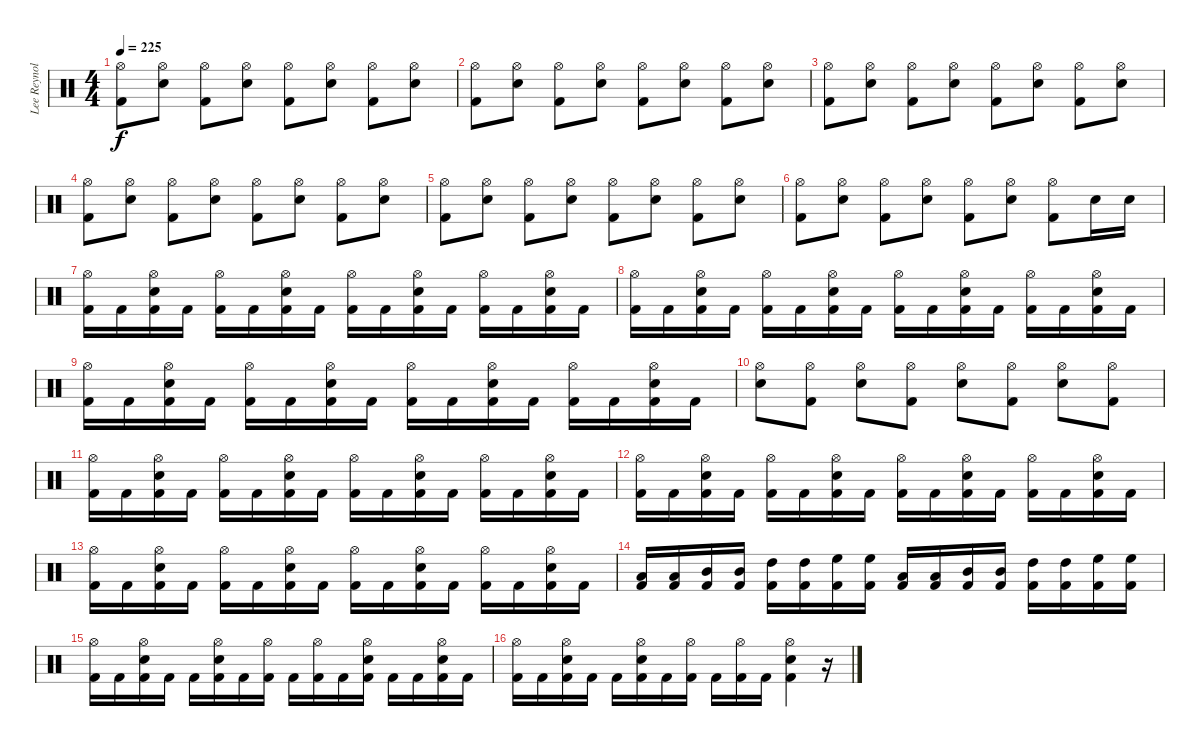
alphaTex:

\track ("Lee Reynolds" "Lee Reynol") {instrument percussion}
\staff {score}
\articulation defaults
\ts (4 4)
\tempo 225
\clef neutral
\ks c
("Hi-Hat (open)" "Kick (hit) 2").8{dy f} ("Hi-Hat (open)" "Snare (hit) 2").8 ("Hi-Hat (open)" "Kick (hit) 2").8 ("Hi-Hat (open)" "Snare (hit) 2").8 ("Hi-Hat (open)" "Kick (hit) 2").8 ("Hi-Hat (open)" "Snare (hit) 2").8 ("Hi-Hat (open)" "Kick (hit) 2").8 ("Hi-Hat (open)" "Snare (hit) 2").8 |
("Hi-Hat (open)" "Kick (hit) 2").8 ("Hi-Hat (open)" "Snare (hit) 2").8 ("Hi-Hat (open)" "Kick (hit) 2").8 ("Hi-Hat (open)" "Snare (hit) 2").8 ("Hi-Hat (open)" "Kick (hit) 2").8 ("Hi-Hat (open)" "Snare (hit) 2").8 ("Hi-Hat (open)" "Kick (hit) 2").8 ("Hi-Hat (open)" "Snare (hit) 2").8 |
("Hi-Hat (open)" "Kick (hit) 2").8 ("Hi-Hat (open)" "Snare (hit) 2").8 ("Hi-Hat (open)" "Kick (hit) 2").8 ("Hi-Hat (open)" "Snare (hit) 2").8 ("Hi-Hat (open)" "Kick (hit) 2").8 ("Hi-Hat (open)" "Snare (hit) 2").8 ("Hi-Hat (open)" "Kick (hit) 2").8 ("Hi-Hat (open)" "Snare (hit) 2").8 |
("Hi-Hat (open)" "Kick (hit) 2").8 ("Hi-Hat (open)" "Snare (hit) 2").8 ("Hi-Hat (open)" "Kick (hit) 2").8 ("Hi-Hat (open)" "Snare (hit) 2").8 ("Hi-Hat (open)" "Kick (hit) 2").8 ("Hi-Hat (open)" "Snare (hit) 2").8 ("Hi-Hat (open)" "Kick (hit) 2").8 ("Hi-Hat (open)" "Snare (hit) 2").8 |
("Hi-Hat (open)" "Kick (hit) 2").8 ("Hi-Hat (open)" "Snare (hit) 2").8 ("Hi-Hat (open)" "Kick (hit) 2").8 ("Hi-Hat (open)" "Snare (hit) 2").8 ("Hi-Hat (open)" "Kick (hit) 2").8 ("Hi-Hat (open)" "Snare (hit) 2").8 ("Hi-Hat (open)" "Kick (hit) 2").8 ("Hi-Hat (open)" "Snare (hit) 2").8 |
("Hi-Hat (open)" "Kick (hit) 2").8 ("Hi-Hat (open)" "Snare (hit) 2").8 ("Hi-Hat (open)" "Kick (hit) 2").8 ("Hi-Hat (open)" "Snare (hit) 2").8 ("Hi-Hat (open)" "Kick (hit) 2").8 ("Hi-Hat (open)" "Snare (hit) 2").8 ("Hi-Hat (open)" "Kick (hit) 2").8 "Snare (hit) 2".16 "Snare (hit) 2".16 |
("Hi-Hat (open)" "Kick (hit) 2").16 "Kick (hit) 2".16 ("Hi-Hat (open)" "Snare (hit) 2" "Kick (hit) 2").16 "Kick (hit) 2".16 ("Hi-Hat (open)" "Kick (hit) 2").16 "Kick (hit) 2".16 ("Hi-Hat (open)" "Snare (hit) 2" "Kick (hit) 2").16 "Kick (hit) 2".16 ("Hi-Hat (open)" "Kick (hit) 2").16 "Kick (hit) 2".16 ("Hi-Hat (open)" "Snare (hit) 2" "Kick (hit) 2").16 "Kick (hit) 2".16 ("Hi-Hat (open)" "Kick (hit) 2").16 "Kick (hit) 2".16 ("Hi-Hat (open)" "Snare (hit) 2" "Kick (hit) 2").16 "Kick (hit) 2".16 |
("Hi-Hat (open)" "Kick (hit) 2").16 "Kick (hit) 2".16 ("Hi-Hat (open)" "Snare (hit) 2" "Kick (hit) 2").16 "Kick (hit) 2".16 ("Hi-Hat (open)" "Kick (hit) 2").16 "Kick (hit) 2".16 ("Hi-Hat (open)" "Snare (hit) 2" "Kick (hit) 2").16 "Kick (hit) 2".16 ("Hi-Hat (open)" "Kick (hit) 2").16 "Kick (hit) 2".16 ("Hi-Hat (open)" "Snare (hit) 2" "Kick (hit) 2").16 "Kick (hit) 2".16 ("Hi-Hat (open)" "Kick (hit) 2").16 "Kick (hit) 2".16 ("Hi-Hat (open)" "Snare (hit) 2" "Kick (hit) 2").16 "Kick (hit) 2".16 |
("Hi-Hat (open)" "Kick (hit) 2").16 "Kick (hit) 2".16 ("Hi-Hat (open)" "Snare (hit) 2" "Kick (hit) 2").16 "Kick (hit) 2".16 ("Hi-Hat (open)" "Kick (hit) 2").16 "Kick (hit) 2".16 ("Hi-Hat (open)" "Snare (hit) 2" "Kick (hit) 2").16 "Kick (hit) 2".16 ("Hi-Hat (open)" "Kick (hit) 2").16 "Kick (hit) 2".16 ("Hi-Hat (open)" "Snare (hit) 2" "Kick (hit) 2").16 "Kick (hit) 2".16 ("Hi-Hat (open)" "Kick (hit) 2").16 "Kick (hit) 2".16 ("Hi-Hat (open)" "Snare (hit) 2" "Kick (hit) 2").16 "Kick (hit) 2".16 |
("Hi-Hat (open)" "Snare (hit) 2").8 ("Hi-Hat (open)" "Kick (hit) 2").8 ("Hi-Hat (open)" "Snare (hit) 2").8 ("Hi-Hat (open)" "Kick (hit) 2").8 ("Hi-Hat (open)" "Snare (hit) 2").8 ("Hi-Hat (open)" "Kick (hit) 2").8 ("Hi-Hat (open)" "Snare (hit) 2").8 ("Hi-Hat (open)" "Kick (hit) 2").8 |
("Hi-Hat (open)" "Kick (hit) 2").16 "Kick (hit) 2".16 ("Hi-Hat (open)" "Snare (hit) 2" "Kick (hit) 2").16 "Kick (hit) 2".16 ("Hi-Hat (open)" "Kick (hit) 2").16 "Kick (hit) 2".16 ("Hi-Hat (open)" "Snare (hit) 2" "Kick (hit) 2").16 "Kick (hit) 2".16 ("Hi-Hat (open)" "Kick (hit) 2").16 "Kick (hit) 2".16 ("Hi-Hat (open)" "Snare (hit) 2" "Kick (hit) 2").16 "Kick (hit) 2".16 ("Hi-Hat (open)" "Kick (hit) 2").16 "Kick (hit) 2".16 ("Hi-Hat (open)" "Snare (hit) 2" "Kick (hit) 2").16 "Kick (hit) 2".16 |
("Hi-Hat (open)" "Kick (hit) 2").16 "Kick (hit) 2".16 ("Hi-Hat (open)" "Snare (hit) 2" "Kick (hit) 2").16 "Kick (hit) 2".16 ("Hi-Hat (open)" "Kick (hit) 2").16 "Kick (hit) 2".16 ("Hi-Hat (open)" "Snare (hit) 2" "Kick (hit) 2").16 "Kick (hit) 2".16 ("Hi-Hat (open)" "Kick (hit) 2").16 "Kick (hit) 2".16 ("Hi-Hat (open)" "Snare (hit) 2" "Kick (hit) 2").16 "Kick (hit) 2".16 ("Hi-Hat (open)" "Kick (hit) 2").16 "Kick (hit) 2".16 ("Hi-Hat (open)" "Snare (hit) 2" "Kick (hit) 2").16 "Kick (hit) 2".16 |
("Hi-Hat (open)" "Kick (hit) 2").16 "Kick (hit) 2".16 ("Hi-Hat (open)" "Snare (hit) 2" "Kick (hit) 2").16 "Kick (hit) 2".16 ("Hi-Hat (open)" "Kick (hit) 2").16 "Kick (hit) 2".16 ("Hi-Hat (open)" "Snare (hit) 2" "Kick (hit) 2").16 "Kick (hit) 2".16 ("Hi-Hat (open)" "Kick (hit) 2").16 "Kick (hit) 2".16 ("Hi-Hat (open)" "Snare (hit) 2" "Kick (hit) 2").16 "Kick (hit) 2".16 ("Hi-Hat (open)" "Kick (hit) 2").16 "Kick (hit) 2".16 ("Hi-Hat (open)" "Snare (hit) 2" "Kick (hit) 2").16 "Kick (hit) 2".16 |
("Low Tom (hit)" "Kick (hit) 2").16 ("Low Tom (hit)" "Kick (hit) 2").16 ("Mid Tom (hit)" "Kick (hit) 2").16 ("Mid Tom (hit)" "Kick (hit) 2").16 ("High Tom (hit)" "Kick (hit) 2").16 ("High Tom (hit)" "Kick (hit) 2").16 ("High Floor Tom (hit)" "Kick (hit) 2").16 ("High Floor Tom (hit)" "Kick (hit) 2").16 ("Low Tom (hit)" "Kick (hit) 2").16 ("Low Tom (hit)" "Kick (hit) 2").16 ("Mid Tom (hit)" "Kick (hit) 2").16 ("Mid Tom (hit)" "Kick (hit) 2").16 ("High Tom (hit)" "Kick (hit) 2").16 ("High Tom (hit)" "Kick (hit) 2").16 ("High Floor Tom (hit)" "Kick (hit) 2").16 ("High Floor Tom (hit)" "Kick (hit) 2").16 |
("Hi-Hat (open)" "Kick (hit) 2").16 "Kick (hit) 2".16 ("Hi-Hat (open)" "Snare (hit) 2" "Kick (hit) 2").16 "Kick (hit) 2".16 "Kick (hit) 2".16 ("Hi-Hat (open)" "Snare (hit) 2" "Kick (hit) 2").16 "Kick (hit) 2".16 ("Hi-Hat (open)" "Kick (hit) 2").16 "Kick (hit) 2".16 ("Hi-Hat (open)" "Kick (hit) 2").16 "Kick (hit) 2".16 ("Hi-Hat (open)" "Snare (hit) 2" "Kick (hit) 2").16 "Kick (hit) 2".16 "Kick (hit) 2".16 ("Hi-Hat (open)" "Snare (hit) 2" "Kick (hit) 2").16 "Kick (hit) 2".16 |
("Hi-Hat (open)" "Kick (hit) 2").16 "Kick (hit) 2".16 ("Hi-Hat (open)" "Snare (hit) 2" "Kick (hit) 2").16 "Kick (hit) 2".16 "Kick (hit) 2".16 ("Hi-Hat (open)" "Snare (hit) 2" "Kick (hit) 2").16 "Kick (hit) 2".16 ("Hi-Hat (open)" "Kick (hit) 2").16 "Kick (hit) 2".16 ("Hi-Hat (open)" "Kick (hit) 2").16 "Kick (hit) 2".16 ("Hi-Hat (open)" "Snare (hit) 2" "Kick (hit) 2").4 r.16
